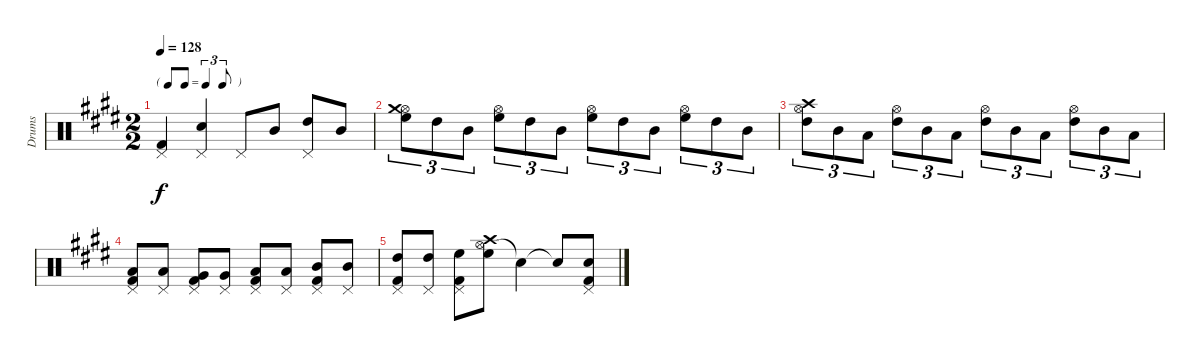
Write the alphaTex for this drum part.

\track ("Drums" "Drums") {instrument percussion}
\staff {score}
\articulation defaults
\ts (2 2)
\tf triplet8th
\tempo 128
\clef neutral
\ks e
("Pedal Hi-Hat (hit)" "Kick (hit) 2").4{dy f} ("Pedal Hi-Hat (hit)" "Snare (hit) 2").4 "Pedal Hi-Hat (hit)".8 "Mid Tom (hit)".8 ("Pedal Hi-Hat (hit)" "High Tom (hit)").8 "Mid Tom (hit)".8 |
("Hi-Hat (open)" "Crash medium (hit)" "High Floor Tom (hit)").8{tu (3 2)} "High Tom (hit)".8{tu (3 2)} "Mid Tom (hit)".8{tu (3 2)} ("Hi-Hat (open)" "High Floor Tom (hit)").8{tu (3 2)} "High Tom (hit)".8{tu (3 2)} "Mid Tom (hit)".8{tu (3 2)} ("Hi-Hat (open)" "High Floor Tom (hit)").8{tu (3 2)} "High Tom (hit)".8{tu (3 2)} "Mid Tom (hit)".8{tu (3 2)} ("Hi-Hat (open)" "High Floor Tom (hit)").8{tu (3 2)} "High Tom (hit)".8{tu (3 2)} "Mid Tom (hit)".8{tu (3 2)} |
("Hi-Hat (open)" "Crash high (hit)" "High Tom (hit)").8{tu (3 2)} "Mid Tom (hit)".8{tu (3 2)} "Low Tom (hit)".8{tu (3 2)} ("Hi-Hat (open)" "High Tom (hit)").8{tu (3 2)} "Mid Tom (hit)".8{tu (3 2)} "Low Tom (hit)".8{tu (3 2)} ("Hi-Hat (open)" "High Tom (hit)").8{tu (3 2)} "Mid Tom (hit)".8{tu (3 2)} "Low Tom (hit)".8{tu (3 2)} ("Hi-Hat (open)" "High Tom (hit)").8{tu (3 2)} "Mid Tom (hit)".8{tu (3 2)} "Low Tom (hit)".8{tu (3 2)} |
("Pedal Hi-Hat (hit)" "Low Floor Tom (hit)" "Kick (hit) 2").8 ("Pedal Hi-Hat (hit)" "Low Floor Tom (hit)").8 ("Pedal Hi-Hat (hit)" "Very Low Tom (hit)" "Kick (hit) 2").8 ("Pedal Hi-Hat (hit)" "Very Low Tom (hit)").8 ("Pedal Hi-Hat (hit)" "Low Tom (hit)" "Kick (hit) 2").8 ("Pedal Hi-Hat (hit)" "Low Tom (hit)").8 ("Pedal Hi-Hat (hit)" "Mid Tom (hit)" "Kick (hit) 2").8 ("Pedal Hi-Hat (hit)" "Mid Tom (hit)").8 |
("Pedal Hi-Hat (hit)" "High Tom (hit)" "Kick (hit) 2").8 ("Pedal Hi-Hat (hit)" "High Tom (hit)").8 ("Pedal Hi-Hat (hit)" "High Floor Tom (hit)" "Kick (hit) 2").8 ("Hi-Hat (open)" "Crash high (hit)" "High Floor Tom (hit)").8 "Snare (hit)"{t}.4 "Snare (hit)"{t}.8 ("Pedal Hi-Hat (hit)" "Snare (hit) 2" "Kick (hit) 2").8
